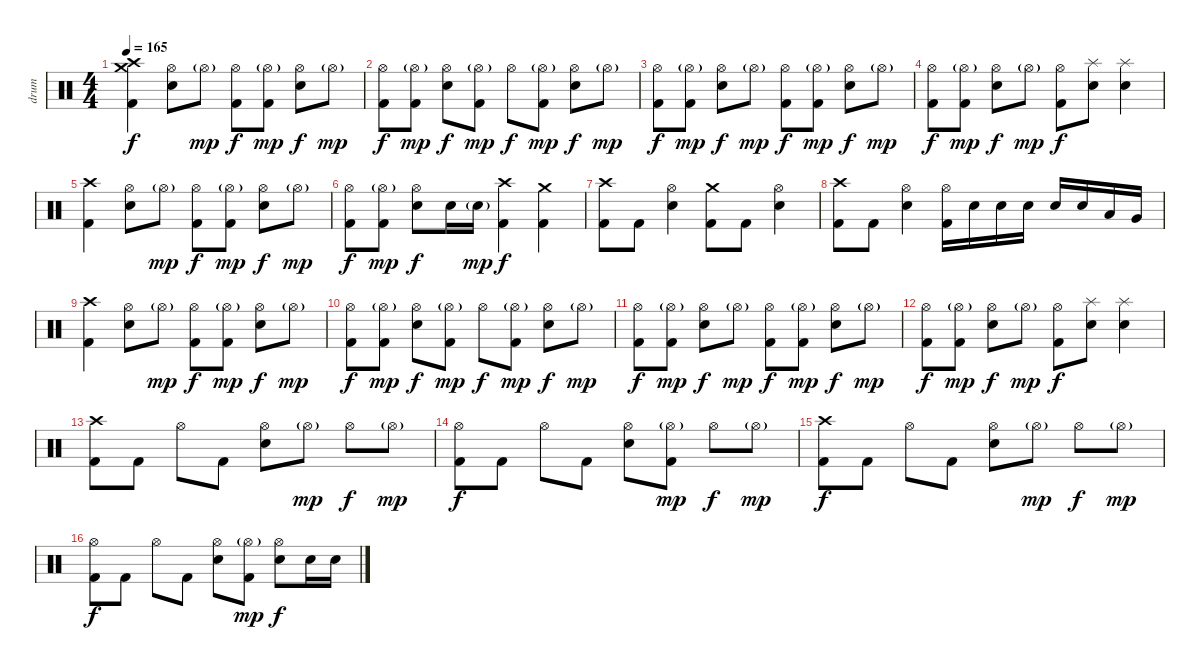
\track ("drum" "drum") {instrument percussion}
\staff {score}
\articulation defaults
\ts (4 4)
\tempo 165
\clef neutral
\ks c
("Crash medium (hit)" "Crash high (hit)" "Kick (hit) 2").4{dy f} ("Hi-Hat (open)" "Electric Snare (hit)").8 "Hi-Hat (open)"{g}.8{dy mp} ("Hi-Hat (open)" "Kick (hit) 2").8{dy f} ("Hi-Hat (open)"{g} "Kick (hit) 2").8{dy mp} ("Hi-Hat (open)" "Electric Snare (hit)").8{dy f} "Hi-Hat (open)"{g}.8{dy mp} |
("Hi-Hat (open)" "Kick (hit) 2").8{dy f} ("Hi-Hat (open)"{g} "Kick (hit) 2").8{dy mp} ("Hi-Hat (open)" "Electric Snare (hit)").8{dy f} ("Hi-Hat (open)"{g} "Kick (hit) 2").8{dy mp} "Hi-Hat (open)".8{dy f} ("Hi-Hat (open)"{g} "Kick (hit) 2").8{dy mp} ("Hi-Hat (open)" "Electric Snare (hit)").8{dy f} "Hi-Hat (open)"{g}.8{dy mp} |
("Hi-Hat (open)" "Kick (hit) 2").8{dy f} ("Hi-Hat (open)"{g} "Kick (hit) 2").8{dy mp} ("Hi-Hat (open)" "Electric Snare (hit)").8{dy f} "Hi-Hat (open)"{g}.8{dy mp} ("Hi-Hat (open)" "Kick (hit) 2").8{dy f} ("Hi-Hat (open)"{g} "Kick (hit) 2").8{dy mp} ("Hi-Hat (open)" "Electric Snare (hit)").8{dy f} "Hi-Hat (open)"{g}.8{dy mp} |
("Hi-Hat (open)" "Kick (hit) 2").8{dy f} ("Hi-Hat (open)"{g} "Kick (hit) 2").8{dy mp} ("Hi-Hat (open)" "Electric Snare (hit)").8{dy f} "Hi-Hat (open)"{g}.8{dy mp} ("Hi-Hat (open)" "Kick (hit) 2").8{dy f} ("Splash (hit)" "Electric Snare (hit)").8 ("Splash (hit)" "Electric Snare (hit)").4 |
("Crash high (hit)" "Kick (hit) 2").4 ("Hi-Hat (open)" "Electric Snare (hit)").8 "Hi-Hat (open)"{g}.8{dy mp} ("Hi-Hat (open)" "Kick (hit) 2").8{dy f} ("Hi-Hat (open)"{g} "Kick (hit) 2").8{dy mp} ("Hi-Hat (open)" "Electric Snare (hit)").8{dy f} "Hi-Hat (open)"{g}.8{dy mp} |
("Hi-Hat (open)" "Kick (hit) 2").8{dy f} ("Hi-Hat (open)"{g} "Kick (hit) 2").8{dy mp} ("Hi-Hat (open)" "Electric Snare (hit)").8{dy f} "Electric Snare (hit)".16 "Electric Snare (hit)"{g}.16{dy mp} ("Crash high (hit)" "Kick (hit) 2").4{dy f} ("Crash medium (hit)" "Kick (hit) 2").4 |
("Crash high (hit)" "Kick (hit) 2").8 "Kick (hit) 2".8 ("Hi-Hat (open)" "Electric Snare (hit)").4 ("Crash medium (hit)" "Kick (hit) 2").8 "Kick (hit) 2".8 ("Hi-Hat (open)" "Electric Snare (hit)").4 |
("Crash high (hit)" "Kick (hit) 2").8 "Kick (hit) 2".8 ("Hi-Hat (open)" "Electric Snare (hit)").4 ("Hi-Hat (open)" "Kick (hit) 2").16 "Electric Snare (hit)".16 "Electric Snare (hit)".16 "Electric Snare (hit)".16 "Electric Snare (hit)".16 "Electric Snare (hit)".16 "Low Tom (hit)".16 "Very Low Tom (hit)".16 |
("Crash high (hit)" "Kick (hit) 2").4 ("Hi-Hat (open)" "Electric Snare (hit)").8 "Hi-Hat (open)"{g}.8{dy mp} ("Hi-Hat (open)" "Kick (hit) 2").8{dy f} ("Hi-Hat (open)"{g} "Kick (hit) 2").8{dy mp} ("Hi-Hat (open)" "Electric Snare (hit)").8{dy f} "Hi-Hat (open)"{g}.8{dy mp} |
("Hi-Hat (open)" "Kick (hit) 2").8{dy f} ("Hi-Hat (open)"{g} "Kick (hit) 2").8{dy mp} ("Hi-Hat (open)" "Electric Snare (hit)").8{dy f} ("Hi-Hat (open)"{g} "Kick (hit) 2").8{dy mp} "Hi-Hat (open)".8{dy f} ("Hi-Hat (open)"{g} "Kick (hit) 2").8{dy mp} ("Hi-Hat (open)" "Electric Snare (hit)").8{dy f} "Hi-Hat (open)"{g}.8{dy mp} |
("Hi-Hat (open)" "Kick (hit) 2").8{dy f} ("Hi-Hat (open)"{g} "Kick (hit) 2").8{dy mp} ("Hi-Hat (open)" "Electric Snare (hit)").8{dy f} "Hi-Hat (open)"{g}.8{dy mp} ("Hi-Hat (open)" "Kick (hit) 2").8{dy f} ("Hi-Hat (open)"{g} "Kick (hit) 2").8{dy mp} ("Hi-Hat (open)" "Electric Snare (hit)").8{dy f} "Hi-Hat (open)"{g}.8{dy mp} |
("Hi-Hat (open)" "Kick (hit) 2").8{dy f} ("Hi-Hat (open)"{g} "Kick (hit) 2").8{dy mp} ("Hi-Hat (open)" "Electric Snare (hit)").8{dy f} "Hi-Hat (open)"{g}.8{dy mp} ("Hi-Hat (open)" "Kick (hit) 2").8{dy f} ("Splash (hit)" "Electric Snare (hit)").8 ("Splash (hit)" "Electric Snare (hit)").4 |
("Crash high (hit)" "Kick (hit) 2").8 "Kick (hit) 2".8 "Hi-Hat (open)".8 "Kick (hit) 2".8 ("Hi-Hat (open)" "Electric Snare (hit)").8 "Hi-Hat (open)"{g}.8{dy mp} "Hi-Hat (open)".8{dy f} "Hi-Hat (open)"{g}.8{dy mp} |
("Hi-Hat (open)" "Kick (hit) 2").8{dy f} "Kick (hit) 2".8 "Hi-Hat (open)".8 "Kick (hit) 2".8 ("Hi-Hat (open)" "Electric Snare (hit)").8 ("Hi-Hat (open)"{g} "Kick (hit) 2").8{dy mp} "Hi-Hat (open)".8{dy f} "Hi-Hat (open)"{g}.8{dy mp} |
("Crash high (hit)" "Kick (hit) 2").8{dy f} "Kick (hit) 2".8 "Hi-Hat (open)".8 "Kick (hit) 2".8 ("Hi-Hat (open)" "Electric Snare (hit)").8 "Hi-Hat (open)"{g}.8{dy mp} "Hi-Hat (open)".8{dy f} "Hi-Hat (open)"{g}.8{dy mp} |
("Hi-Hat (open)" "Kick (hit) 2").8{dy f} "Kick (hit) 2".8 "Hi-Hat (open)".8 "Kick (hit) 2".8 ("Hi-Hat (open)" "Electric Snare (hit)").8 ("Hi-Hat (open)"{g} "Kick (hit) 2").8{dy mp} ("Hi-Hat (open)" "Electric Snare (hit)").8{dy f} "Electric Snare (hit)".16 "Electric Snare (hit)".16
